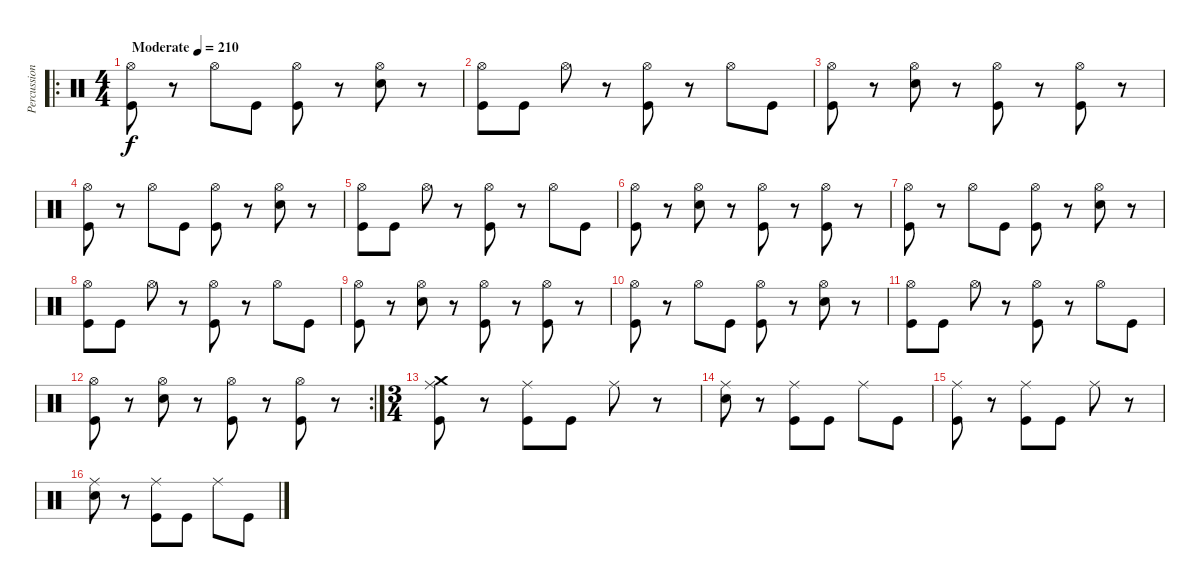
\track ("Percussion" "Percussion") {instrument percussion}
\staff {score}
\articulation defaults
\ro
\ts (4 4)
\tempo (210 "Moderate")
\clef neutral
\ks c
("Hi-Hat (open)" "Kick (hit)").8{dy f} r.8 "Hi-Hat (open)".8 "Kick (hit)".8 ("Hi-Hat (open)" "Kick (hit)").8 r.8 ("Hi-Hat (open)" "Electric Snare (hit)").8 r.8 |
("Hi-Hat (open)" "Kick (hit)").8 "Kick (hit)".8 "Hi-Hat (open)".8 r.8 ("Hi-Hat (open)" "Kick (hit)").8 r.8 "Hi-Hat (open)".8 "Kick (hit)".8 |
("Hi-Hat (open)" "Kick (hit)").8 r.8 ("Hi-Hat (open)" "Electric Snare (hit)").8 r.8 ("Hi-Hat (open)" "Kick (hit)").8 r.8 ("Hi-Hat (open)" "Kick (hit)").8 r.8 |
("Hi-Hat (open)" "Kick (hit)").8 r.8 "Hi-Hat (open)".8 "Kick (hit)".8 ("Hi-Hat (open)" "Kick (hit)").8 r.8 ("Hi-Hat (open)" "Electric Snare (hit)").8 r.8 |
("Hi-Hat (open)" "Kick (hit)").8 "Kick (hit)".8 "Hi-Hat (open)".8 r.8 ("Hi-Hat (open)" "Kick (hit)").8 r.8 "Hi-Hat (open)".8 "Kick (hit)".8 |
("Hi-Hat (open)" "Kick (hit)").8 r.8 ("Hi-Hat (open)" "Electric Snare (hit)").8 r.8 ("Hi-Hat (open)" "Kick (hit)").8 r.8 ("Hi-Hat (open)" "Kick (hit)").8 r.8 |
("Hi-Hat (open)" "Kick (hit)").8 r.8 "Hi-Hat (open)".8 "Kick (hit)".8 ("Hi-Hat (open)" "Kick (hit)").8 r.8 ("Hi-Hat (open)" "Electric Snare (hit)").8 r.8 |
("Hi-Hat (open)" "Kick (hit)").8 "Kick (hit)".8 "Hi-Hat (open)".8 r.8 ("Hi-Hat (open)" "Kick (hit)").8 r.8 "Hi-Hat (open)".8 "Kick (hit)".8 |
("Hi-Hat (open)" "Kick (hit)").8 r.8 ("Hi-Hat (open)" "Electric Snare (hit)").8 r.8 ("Hi-Hat (open)" "Kick (hit)").8 r.8 ("Hi-Hat (open)" "Kick (hit)").8 r.8 |
("Hi-Hat (open)" "Kick (hit)").8 r.8 "Hi-Hat (open)".8 "Kick (hit)".8 ("Hi-Hat (open)" "Kick (hit)").8 r.8 ("Hi-Hat (open)" "Electric Snare (hit)").8 r.8 |
("Hi-Hat (open)" "Kick (hit)").8 "Kick (hit)".8 "Hi-Hat (open)".8 r.8 ("Hi-Hat (open)" "Kick (hit)").8 r.8 "Hi-Hat (open)".8 "Kick (hit)".8 |
\rc 2
("Hi-Hat (open)" "Kick (hit)").8 r.8 ("Hi-Hat (open)" "Electric Snare (hit)").8 r.8 ("Hi-Hat (open)" "Kick (hit)").8 r.8 ("Hi-Hat (open)" "Kick (hit)").8 r.8 |
\ts (3 4)
("Crash medium (hit)" "Ride (middle)" "Kick (hit)").8 r.8 ("Ride (middle)" "Kick (hit)").8 "Kick (hit)".8 "Ride (middle)".8 r.8 |
("Ride (middle)" "Electric Snare (hit)").8 r.8 ("Ride (middle)" "Kick (hit)").8 "Kick (hit)".8 "Ride (middle)".8 "Kick (hit)".8 |
("Ride (middle)" "Kick (hit)").8 r.8 ("Ride (middle)" "Kick (hit)").8 "Kick (hit)".8 "Ride (middle)".8 r.8 |
("Ride (middle)" "Electric Snare (hit)").8 r.8 ("Ride (middle)" "Kick (hit)").8 "Kick (hit)".8 "Ride (middle)".8 "Kick (hit)".8
